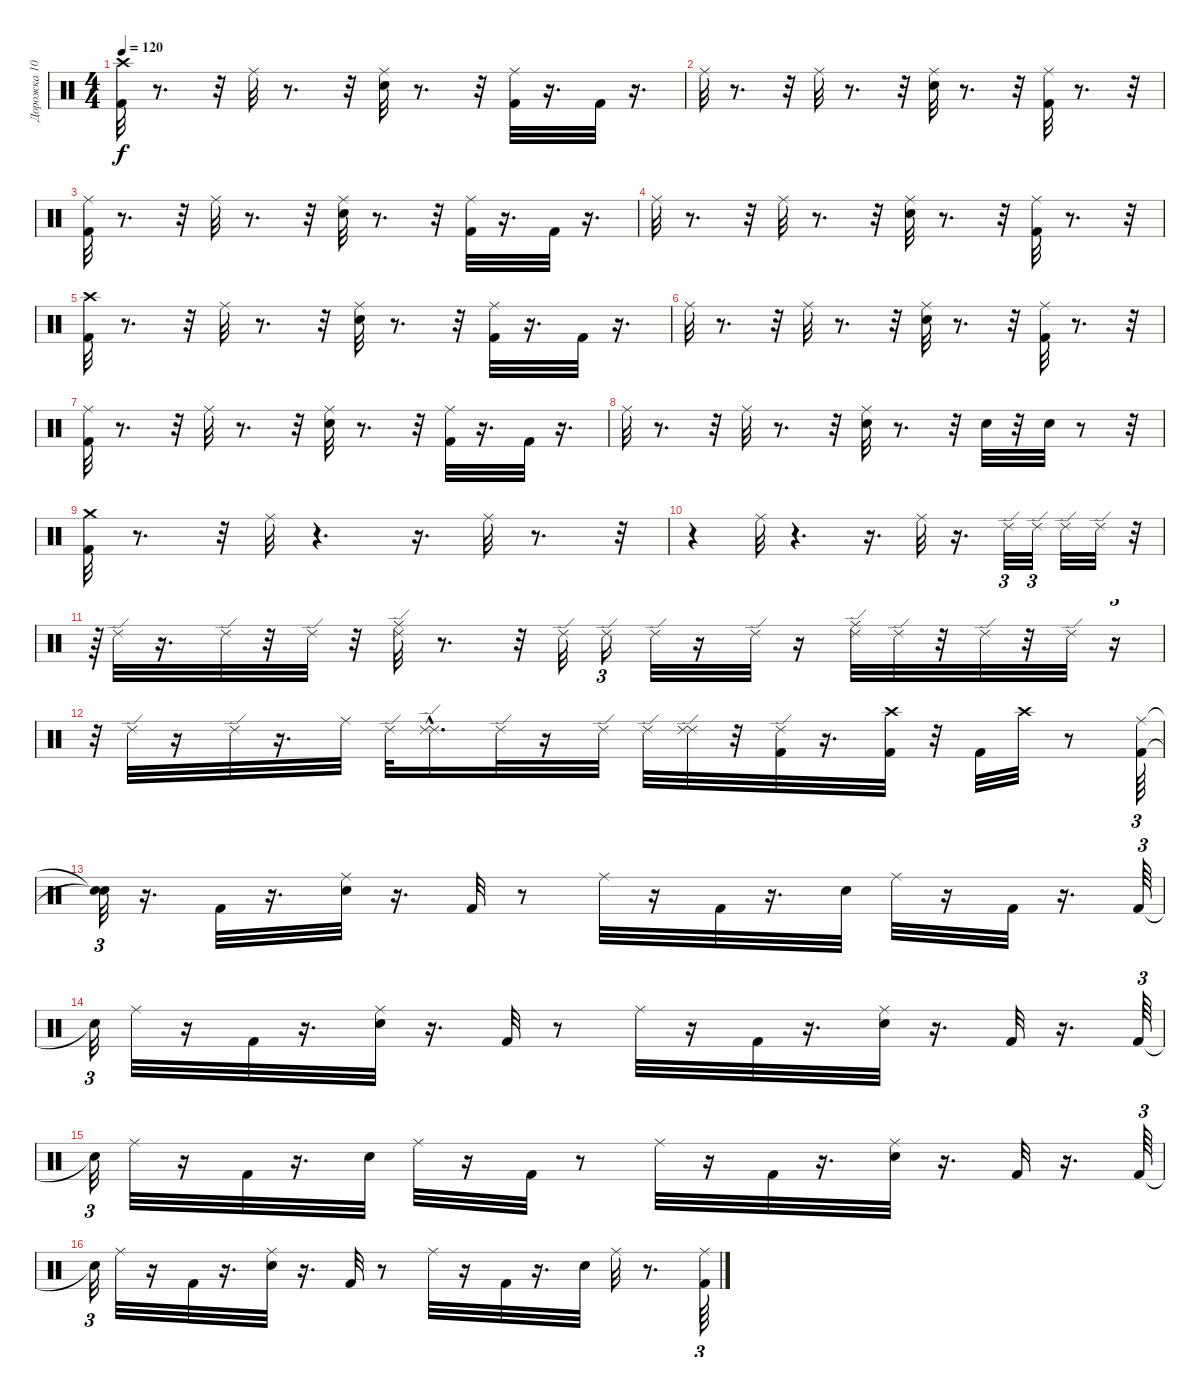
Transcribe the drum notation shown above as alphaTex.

\track ("Дорожка 10" "Дорожка 10") {instrument percussion}
\staff {score}
\articulation defaults
\ts (4 4)
\tempo 120
\clef neutral
\ks c
("Crash high (hit)" "Kick (hit) 2").32{dy f} r.8{d} r.32 "Ride (middle)".32 r.8{d} r.32 ("Ride (middle)" "Snare (hit) 2").32 r.8{d} r.32 ("Ride (middle)" "Kick (hit) 2").32 r.16{d} "Kick (hit) 2".32 r.16{d} |
"Ride (middle)".32 r.8{d} r.32 "Ride (middle)".32 r.8{d} r.32 ("Snare (hit) 2" "Ride (middle)").32 r.8{d} r.32 ("Ride (middle)" "Kick (hit) 2").32 r.8{d} r.32 |
("Ride (middle)" "Kick (hit) 2").32 r.8{d} r.32 "Ride (middle)".32 r.8{d} r.32 ("Snare (hit) 2" "Ride (middle)").32 r.8{d} r.32 ("Kick (hit) 2" "Ride (middle)").32 r.16{d} "Kick (hit) 2".32 r.16{d} |
"Ride (middle)".32 r.8{d} r.32 "Ride (middle)".32 r.8{d} r.32 ("Snare (hit) 2" "Ride (middle)").32 r.8{d} r.32 ("Ride (middle)" "Kick (hit) 2").32 r.8{d} r.32 |
("Crash high (hit)" "Kick (hit) 2").32 r.8{d} r.32 "Ride (middle)".32 r.8{d} r.32 ("Ride (middle)" "Snare (hit) 2").32 r.8{d} r.32 ("Ride (middle)" "Kick (hit) 2").32 r.16{d} "Kick (hit) 2".32 r.16{d} |
"Ride (middle)".32 r.8{d} r.32 "Ride (middle)".32 r.8{d} r.32 ("Ride (middle)" "Snare (hit) 2").32 r.8{d} r.32 ("Ride (middle)" "Kick (hit) 2").32 r.8{d} r.32 |
("Ride (middle)" "Kick (hit) 2").32 r.8{d} r.32 "Ride (middle)".32 r.8{d} r.32 ("Ride (middle)" "Snare (hit) 2").32 r.8{d} r.32 ("Ride (middle)" "Kick (hit) 2").32 r.16{d} "Kick (hit) 2".32 r.16{d} |
"Ride (middle)".32 r.8{d} r.32 "Ride (middle)".32 r.8{d} r.32 ("Ride (middle)" "Snare (hit) 2").32 r.8{d} r.32 "Snare (hit) 2".32 r.32 "Snare (hit) 2".32 r.8 r.32 |
("Crash medium (hit)" "Kick (hit) 2").32 r.8{d} r.32 "Ride (middle)".32 r.4{d} r.16{d} "Ride (middle)".32 r.8{d} r.32 |
r.4 "Ride (middle)".32 r.4{d} r.16{d} "Ride (middle)".32 r.16{d} "Ride (edge) 2".32{tu (3 2)} "Ride (edge) 2".32{tu (3 2)} "Ride (edge) 2".32 "Ride (edge) 2".32 r.32{tu (3 2)} |
r.64{tu (3 2)} "Ride (edge) 2".32 r.16{d} "Ride (edge) 2".32 r.32 "Ride (edge) 2".32 r.32 ("Ride (middle)" "Ride (edge) 2").32 r.8{d} r.32 "Ride (edge) 2".32 "Ride (edge) 2".16{tu (3 2)} "Ride (edge) 2".32 r.16 "Ride (edge) 2".32 r.16 ("Ride (middle)" "Ride (edge) 2").32 "Ride (edge) 2".32 r.32 "Ride (edge) 2".32 r.32 "Ride (edge) 2".32 r.16{tu (3 2)} |
r.32{tu (3 2)} "Ride (edge) 2".32 r.16 "Ride (edge) 2".32 r.16{d} "Ride (middle)".32 "Ride (edge) 2".32 ("Ride (edge) 2"{hac} "Ride (edge) 2").16{d} "Ride (edge) 2".32 r.16 "Ride (edge) 2".32 "Ride (edge) 2".32 ("Ride (edge) 2" "Ride (edge) 2").32 r.32 ("Ride (edge) 2" "Kick (hit) 2").32 r.16{d} ("Kick (hit) 2" "Crash high (hit)").32 r.32 "Kick (hit) 2".32 "Crash high (hit)".32 r.8 ("Ride (middle)" "Kick (hit) 2").64{tu (3 2)} |
("Snare (hit)"{t} "Snare (hit)"{t}).32{tu (3 2)} r.16{d} "Kick (hit) 2".32 r.16{d} ("Snare (hit) 2" "Ride (middle)").32 r.16{d} "Kick (hit) 2".32 r.8 "Ride (middle)".32 r.16 "Kick (hit) 2".32 r.16{d} "Snare (hit) 2".32 "Ride (middle)".32 r.16 "Kick (hit) 2".32 r.16{d} "Kick (hit) 2".64{tu (3 2)} |
"Snare (hit)"{t}.32{tu (3 2)} "Ride (middle)".32 r.16 "Kick (hit) 2".32 r.16{d} ("Snare (hit) 2" "Ride (middle)").32 r.16{d} "Kick (hit) 2".32 r.8 "Ride (middle)".32 r.16 "Kick (hit) 2".32 r.16{d} ("Snare (hit) 2" "Ride (middle)").32 r.16{d} "Kick (hit) 2".32 r.16{d} "Kick (hit) 2".64{tu (3 2)} |
"Snare (hit)"{t}.32{tu (3 2)} "Ride (middle)".32 r.16 "Kick (hit) 2".32 r.16{d} "Snare (hit) 2".32 "Ride (middle)".32 r.16 "Kick (hit) 2".32 r.8 "Ride (middle)".32 r.16 "Kick (hit) 2".32 r.16{d} ("Ride (middle)" "Snare (hit) 2").32 r.16{d} "Kick (hit) 2".32 r.16{d} "Kick (hit) 2".64{tu (3 2)} |
"Snare (hit)"{t}.32{tu (3 2)} "Ride (middle)".32 r.16 "Kick (hit) 2".32 r.16{d} ("Snare (hit) 2" "Ride (middle)").32 r.16{d} "Kick (hit) 2".32 r.8 "Ride (middle)".32 r.16 "Kick (hit) 2".32 r.16{d} "Snare (hit) 2".32 "Ride (middle)".32 r.8{d} ("Kick (hit) 2" "Ride (middle)").64{tu (3 2)}
